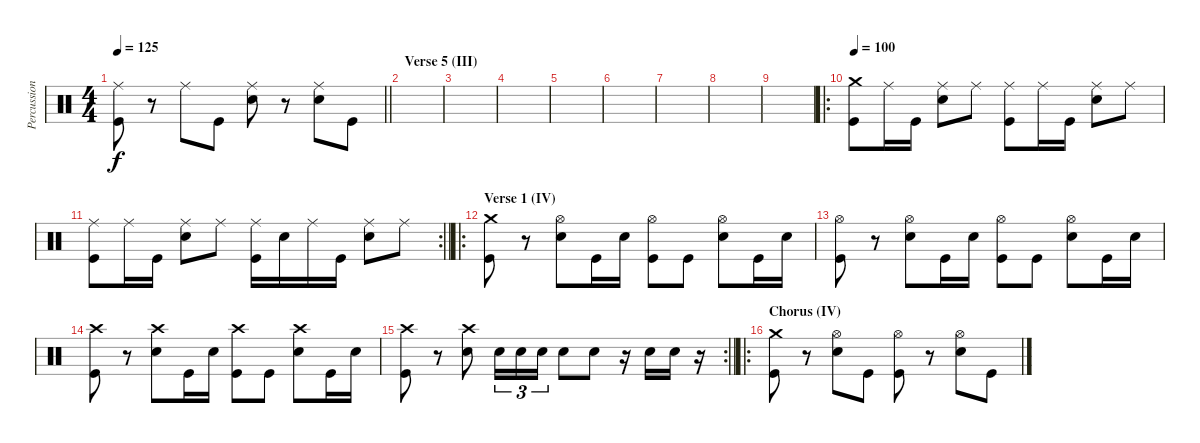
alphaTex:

\track ("Percussion" "Percussion") {instrument percussion}
\staff {score}
\articulation defaults
\ts (4 4)
\tempo 125
\clef neutral
\barLineRight lightlight
\ks c
("Ride (middle)" "Kick (hit)").8{dy f} r.8 "Ride (middle)".8 "Kick (hit)".8 ("Ride (middle)" "Snare (hit) 2").8 r.8 ("Ride (middle)" "Snare (hit) 2").8 "Kick (hit)".8 |
\section ("" "Verse 5 (III)")
|
|
|
|
|
|
|
|
\ro
\tempo 100
("Crash medium (hit)" "Kick (hit)").8 "Ride (middle)".16 "Kick (hit)".16 ("Ride (middle)" "Snare (hit) 2").8 "Ride (middle)".8 ("Ride (middle)" "Kick (hit)").8 "Ride (middle)".16 "Kick (hit)".16 ("Ride (middle)" "Snare (hit) 2").8 "Ride (middle)".8 |
\rc 2
\barLineRight lightlight
("Ride (middle)" "Kick (hit)").8 "Ride (middle)".16 "Kick (hit)".16 ("Ride (middle)" "Snare (hit) 2").8 "Ride (middle)".8 ("Ride (middle)" "Kick (hit)").16 "Snare (hit) 2".16 "Ride (middle)".16 "Kick (hit)".16 ("Ride (middle)" "Snare (hit) 2").8 "Ride (middle)".8 |
\ro
\section ("" "Verse 1 (IV)")
("Crash medium (hit)" "Kick (hit)").8 r.8 ("Hi-Hat (open)" "Snare (hit) 2").8 "Kick (hit)".16 "Snare (hit) 2".16 ("Hi-Hat (open)" "Kick (hit)").8 "Kick (hit)".8 ("Hi-Hat (open)" "Snare (hit) 2").8 "Kick (hit)".16 "Snare (hit) 2".16 |
("Hi-Hat (open)" "Kick (hit)").8 r.8 ("Hi-Hat (open)" "Snare (hit) 2").8 "Kick (hit)".16 "Snare (hit) 2".16 ("Hi-Hat (open)" "Kick (hit)").8 "Kick (hit)".8 ("Hi-Hat (open)" "Snare (hit) 2").8 "Kick (hit)".16 "Snare (hit) 2".16 |
("Crash high (hit)" "Kick (hit)").8 r.8 ("Crash high (hit)" "Snare (hit) 2").8 "Kick (hit)".16 "Snare (hit) 2".16 ("Crash high (hit)" "Kick (hit)").8 "Kick (hit)".8 ("Crash high (hit)" "Snare (hit) 2").8 "Kick (hit)".16 "Snare (hit) 2".16 |
\rc 2
\barLineRight lightlight
("Crash high (hit)" "Kick (hit)").8 r.8 ("Crash high (hit)" "Snare (hit) 2").8 "Snare (hit) 2".16{tu (3 2)} "Snare (hit) 2".16{tu (3 2)} "Snare (hit) 2".16{tu (3 2)} "Snare (hit) 2".8 "Snare (hit) 2".8 r.16 "Snare (hit) 2".16 "Snare (hit) 2".16 r.16 |
\ro
\section ("" "Chorus (IV)")
("Crash medium (hit)" "Kick (hit)").8 r.8 ("Hi-Hat (open)" "Snare (hit) 2").8 "Kick (hit)".8 ("Hi-Hat (open)" "Kick (hit)").8 r.8 ("Hi-Hat (open)" "Snare (hit) 2").8 "Kick (hit)".8
